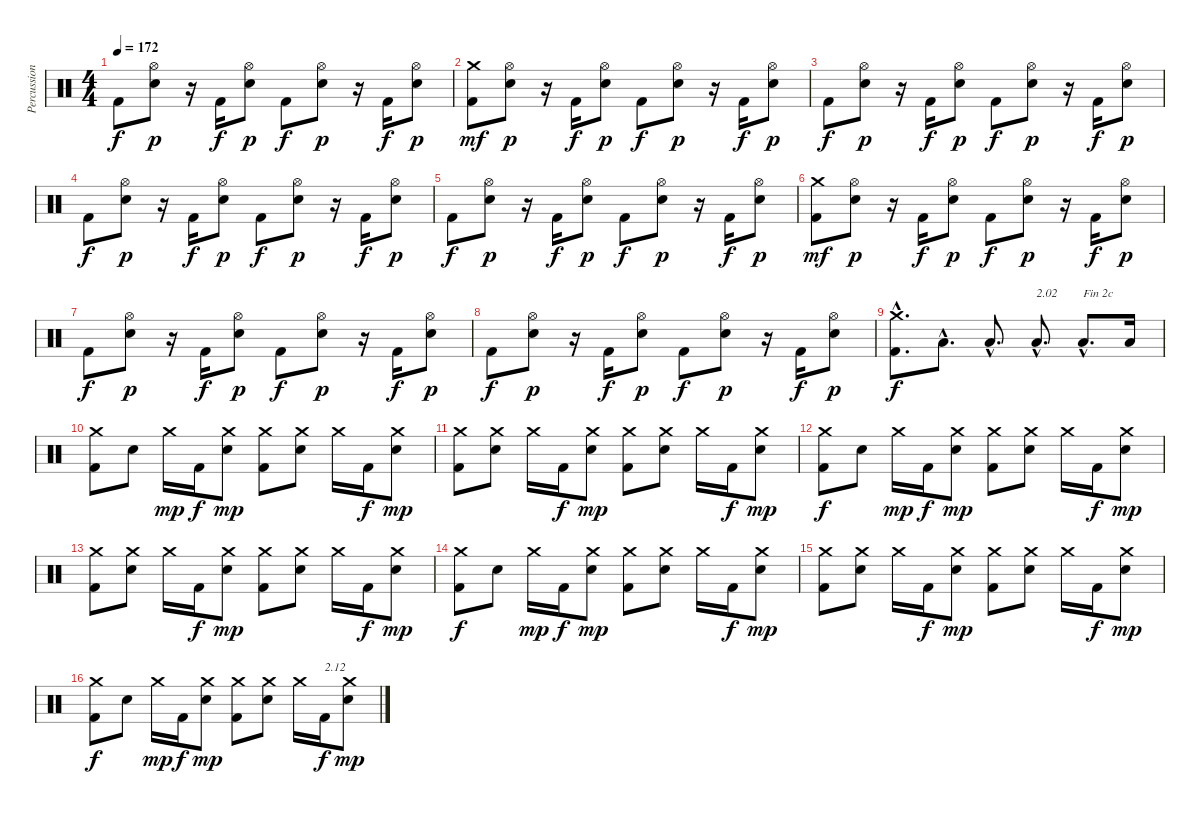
\track ("Percussions" "Percussion") {instrument percussion}
\staff {score}
\articulation defaults
\ts (4 4)
\tempo 172
\clef neutral
\ks c "Kick (hit) 2".8{dy f}
("Electric Snare (hit)" "Hi-Hat (open)").8{dy p} r.16 "Kick (hit) 2".16{dy f} ("Electric Snare (hit)" "Hi-Hat (open)").8{dy p} "Kick (hit) 2".8{dy f} ("Electric Snare (hit)" "Hi-Hat (open)").8{dy p} r.16 "Kick (hit) 2".16{dy f} ("Electric Snare (hit)" "Hi-Hat (open)").8{dy p} |
("Kick (hit) 2" "Crash medium (hit)").8{dy mf} ("Electric Snare (hit)" "Hi-Hat (open)").8{dy p} r.16 "Kick (hit) 2".16{dy f} ("Electric Snare (hit)" "Hi-Hat (open)").8{dy p} "Kick (hit) 2".8{dy f} ("Electric Snare (hit)" "Hi-Hat (open)").8{dy p} r.16 "Kick (hit) 2".16{dy f} ("Electric Snare (hit)" "Hi-Hat (open)").8{dy p} |
"Kick (hit) 2".8{dy f} ("Electric Snare (hit)" "Hi-Hat (open)").8{dy p} r.16 "Kick (hit) 2".16{dy f} ("Electric Snare (hit)" "Hi-Hat (open)").8{dy p} "Kick (hit) 2".8{dy f} ("Electric Snare (hit)" "Hi-Hat (open)").8{dy p} r.16 "Kick (hit) 2".16{dy f} ("Electric Snare (hit)" "Hi-Hat (open)").8{dy p} |
"Kick (hit) 2".8{dy f} ("Electric Snare (hit)" "Hi-Hat (open)").8{dy p} r.16 "Kick (hit) 2".16{dy f} ("Electric Snare (hit)" "Hi-Hat (open)").8{dy p} "Kick (hit) 2".8{dy f} ("Electric Snare (hit)" "Hi-Hat (open)").8{dy p} r.16 "Kick (hit) 2".16{dy f} ("Electric Snare (hit)" "Hi-Hat (open)").8{dy p} |
"Kick (hit) 2".8{dy f} ("Electric Snare (hit)" "Hi-Hat (open)").8{dy p} r.16 "Kick (hit) 2".16{dy f} ("Electric Snare (hit)" "Hi-Hat (open)").8{dy p} "Kick (hit) 2".8{dy f} ("Electric Snare (hit)" "Hi-Hat (open)").8{dy p} r.16 "Kick (hit) 2".16{dy f} ("Electric Snare (hit)" "Hi-Hat (open)").8{dy p} |
("Kick (hit) 2" "Crash medium (hit)").8{dy mf} ("Electric Snare (hit)" "Hi-Hat (open)").8{dy p} r.16 "Kick (hit) 2".16{dy f} ("Electric Snare (hit)" "Hi-Hat (open)").8{dy p} "Kick (hit) 2".8{dy f} ("Electric Snare (hit)" "Hi-Hat (open)").8{dy p} r.16 "Kick (hit) 2".16{dy f} ("Electric Snare (hit)" "Hi-Hat (open)").8{dy p} |
"Kick (hit) 2".8{dy f} ("Electric Snare (hit)" "Hi-Hat (open)").8{dy p} r.16 "Kick (hit) 2".16{dy f} ("Electric Snare (hit)" "Hi-Hat (open)").8{dy p} "Kick (hit) 2".8{dy f} ("Electric Snare (hit)" "Hi-Hat (open)").8{dy p} r.16 "Kick (hit) 2".16{dy f} ("Electric Snare (hit)" "Hi-Hat (open)").8{dy p} |
"Kick (hit) 2".8{dy f} ("Electric Snare (hit)" "Hi-Hat (open)").8{dy p} r.16 "Kick (hit) 2".16{dy f} ("Electric Snare (hit)" "Hi-Hat (open)").8{dy p} "Kick (hit) 2".8{dy f} ("Electric Snare (hit)" "Hi-Hat (open)").8{dy p} r.16 "Kick (hit) 2".16{dy f} ("Electric Snare (hit)" "Hi-Hat (open)").8{dy p} |
("Kick (hit) 2"{hac} "Crash medium (hit)"{hac}).8{d dy f} "Low Floor Tom (hit)"{hac}.8{d} "Low Floor Tom (hit)"{hac}.8{d} "Low Floor Tom (hit)"{hac}.8{d txt "2.02"} "Low Floor Tom (hit)"{hac}.8{d txt "Fin 2c"} "Low Floor Tom (hit)".16 |
("Kick (hit) 2" "Crash medium (hit)").8 "Electric Snare (hit)".8 "Crash medium (hit)".16{dy mp} "Kick (hit) 2".16{dy f} ("Electric Snare (hit)" "Crash medium (hit)").8{dy mp} ("Kick (hit) 2" "Crash medium (hit)").8 ("Electric Snare (hit)" "Crash medium (hit)").8 "Crash medium (hit)".16 "Kick (hit) 2".16{dy f} ("Electric Snare (hit)" "Crash medium (hit)").8{dy mp} |
("Kick (hit) 2" "Crash medium (hit)").8 ("Electric Snare (hit)" "Crash medium (hit)").8 "Crash medium (hit)".16 "Kick (hit) 2".16{dy f} ("Electric Snare (hit)" "Crash medium (hit)").8{dy mp} ("Kick (hit) 2" "Crash medium (hit)").8 ("Electric Snare (hit)" "Crash medium (hit)").8 "Crash medium (hit)".16 "Kick (hit) 2".16{dy f} ("Electric Snare (hit)" "Crash medium (hit)").8{dy mp} |
("Kick (hit) 2" "Crash medium (hit)").8{dy f} "Electric Snare (hit)".8 "Crash medium (hit)".16{dy mp} "Kick (hit) 2".16{dy f} ("Electric Snare (hit)" "Crash medium (hit)").8{dy mp} ("Kick (hit) 2" "Crash medium (hit)").8 ("Electric Snare (hit)" "Crash medium (hit)").8 "Crash medium (hit)".16 "Kick (hit) 2".16{dy f} ("Electric Snare (hit)" "Crash medium (hit)").8{dy mp} |
("Kick (hit) 2" "Crash medium (hit)").8 ("Electric Snare (hit)" "Crash medium (hit)").8 "Crash medium (hit)".16 "Kick (hit) 2".16{dy f} ("Electric Snare (hit)" "Crash medium (hit)").8{dy mp} ("Kick (hit) 2" "Crash medium (hit)").8 ("Electric Snare (hit)" "Crash medium (hit)").8 "Crash medium (hit)".16 "Kick (hit) 2".16{dy f} ("Electric Snare (hit)" "Crash medium (hit)").8{dy mp} |
("Kick (hit) 2" "Crash medium (hit)").8{dy f} "Electric Snare (hit)".8 "Crash medium (hit)".16{dy mp} "Kick (hit) 2".16{dy f} ("Electric Snare (hit)" "Crash medium (hit)").8{dy mp} ("Kick (hit) 2" "Crash medium (hit)").8 ("Electric Snare (hit)" "Crash medium (hit)").8 "Crash medium (hit)".16 "Kick (hit) 2".16{dy f} ("Electric Snare (hit)" "Crash medium (hit)").8{dy mp} |
("Kick (hit) 2" "Crash medium (hit)").8 ("Electric Snare (hit)" "Crash medium (hit)").8 "Crash medium (hit)".16 "Kick (hit) 2".16{dy f} ("Electric Snare (hit)" "Crash medium (hit)").8{dy mp} ("Kick (hit) 2" "Crash medium (hit)").8 ("Electric Snare (hit)" "Crash medium (hit)").8 "Crash medium (hit)".16 "Kick (hit) 2".16{dy f} ("Electric Snare (hit)" "Crash medium (hit)").8{dy mp} |
("Kick (hit) 2" "Crash medium (hit)").8{dy f} "Electric Snare (hit)".8 "Crash medium (hit)".16{dy mp} "Kick (hit) 2".16{dy f} ("Electric Snare (hit)" "Crash medium (hit)").8{dy mp} ("Kick (hit) 2" "Crash medium (hit)").8 ("Electric Snare (hit)" "Crash medium (hit)").8 "Crash medium (hit)".16 "Kick (hit) 2".16{txt "2.12" dy f} ("Electric Snare (hit)" "Crash medium (hit)").8{dy mp}
